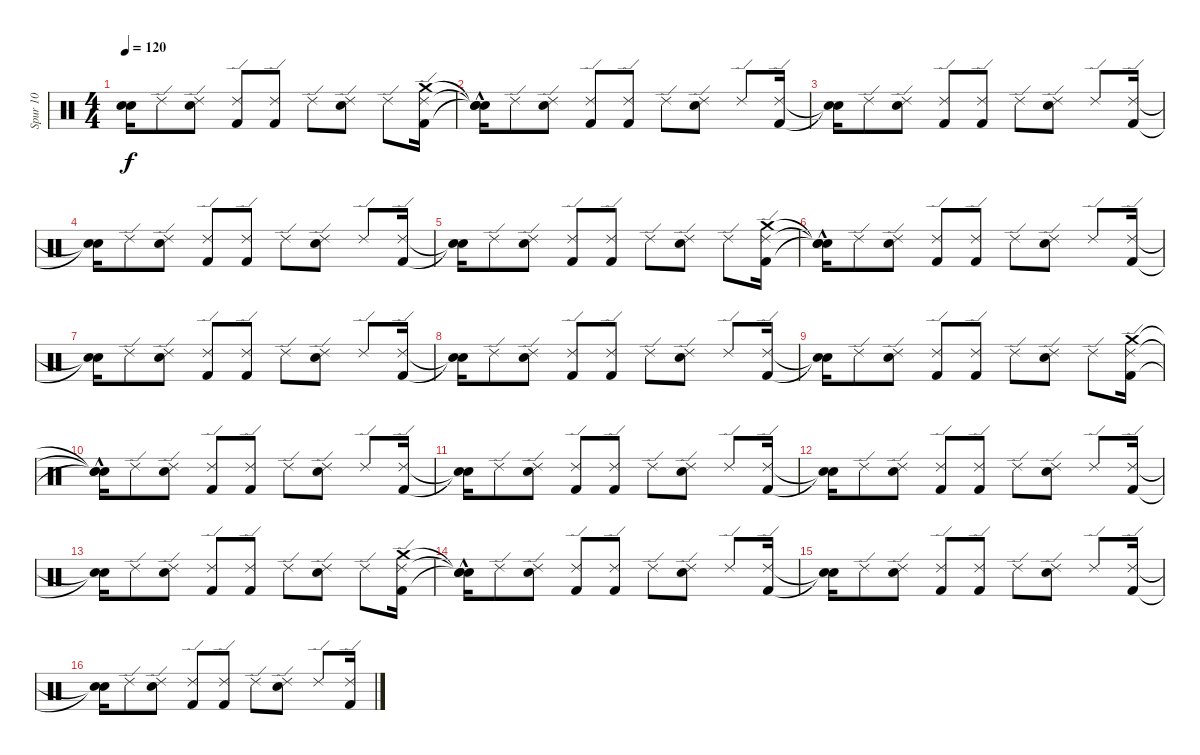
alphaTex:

\track ("Spur 10" "Spur 10") {instrument percussion}
\staff {score}
\articulation defaults
\ts (4 4)
\tempo 120
\clef neutral
\ks c
("Snare (hit)"{t} "Snare (hit)"{t}).16{dy f} "Ride (edge) 2".8 ("Electric Snare (hit)" "Ride (edge) 2").8 ("Kick (hit) 2" "Ride (edge) 2").8 ("Kick (hit) 2" "Ride (edge) 2").8 "Ride (edge) 2".8 ("Electric Snare (hit)" "Ride (edge) 2").8 "Ride (edge) 2".8 ("Kick (hit) 2" "Ride (edge) 2" "Crash medium (hit)").16 |
("Snare (hit)"{t} "Snare (hit)"{t} "Snare (hit)"{hac t}).16 "Ride (edge) 2".8 ("Electric Snare (hit)" "Ride (edge) 2").8 ("Kick (hit) 2" "Ride (edge) 2").8 ("Kick (hit) 2" "Ride (edge) 2").8 "Ride (edge) 2".8 ("Electric Snare (hit)" "Ride (edge) 2").8 "Ride (edge) 2".8 ("Kick (hit) 2" "Ride (edge) 2").16 |
("Snare (hit)"{t} "Snare (hit)"{t}).16 "Ride (edge) 2".8 ("Electric Snare (hit)" "Ride (edge) 2").8 ("Kick (hit) 2" "Ride (edge) 2").8 ("Kick (hit) 2" "Ride (edge) 2").8 "Ride (edge) 2".8 ("Electric Snare (hit)" "Ride (edge) 2").8 "Ride (edge) 2".8 ("Kick (hit) 2" "Ride (edge) 2").16 |
("Snare (hit)"{t} "Snare (hit)"{t}).16 "Ride (edge) 2".8 ("Electric Snare (hit)" "Ride (edge) 2").8 ("Kick (hit) 2" "Ride (edge) 2").8 ("Kick (hit) 2" "Ride (edge) 2").8 "Ride (edge) 2".8 ("Electric Snare (hit)" "Ride (edge) 2").8 "Ride (edge) 2".8 ("Kick (hit) 2" "Ride (edge) 2").16 |
("Snare (hit)"{t} "Snare (hit)"{t}).16 "Ride (edge) 2".8 ("Electric Snare (hit)" "Ride (edge) 2").8 ("Kick (hit) 2" "Ride (edge) 2").8 ("Kick (hit) 2" "Ride (edge) 2").8 "Ride (edge) 2".8 ("Electric Snare (hit)" "Ride (edge) 2").8 "Ride (edge) 2".8 ("Kick (hit) 2" "Ride (edge) 2" "Crash medium (hit)").16 |
("Snare (hit)"{t} "Snare (hit)"{t} "Snare (hit)"{hac t}).16 "Ride (edge) 2".8 ("Electric Snare (hit)" "Ride (edge) 2").8 ("Kick (hit) 2" "Ride (edge) 2").8 ("Kick (hit) 2" "Ride (edge) 2").8 "Ride (edge) 2".8 ("Electric Snare (hit)" "Ride (edge) 2").8 "Ride (edge) 2".8 ("Kick (hit) 2" "Ride (edge) 2").16 |
("Snare (hit)"{t} "Snare (hit)"{t}).16 "Ride (edge) 2".8 ("Electric Snare (hit)" "Ride (edge) 2").8 ("Kick (hit) 2" "Ride (edge) 2").8 ("Kick (hit) 2" "Ride (edge) 2").8 "Ride (edge) 2".8 ("Electric Snare (hit)" "Ride (edge) 2").8 "Ride (edge) 2".8 ("Kick (hit) 2" "Ride (edge) 2").16 |
("Snare (hit)"{t} "Snare (hit)"{t}).16 "Ride (edge) 2".8 ("Electric Snare (hit)" "Ride (edge) 2").8 ("Kick (hit) 2" "Ride (edge) 2").8 ("Kick (hit) 2" "Ride (edge) 2").8 "Ride (edge) 2".8 ("Electric Snare (hit)" "Ride (edge) 2").8 "Ride (edge) 2".8 ("Kick (hit) 2" "Ride (edge) 2").16 |
("Snare (hit)"{t} "Snare (hit)"{t}).16 "Ride (edge) 2".8 ("Electric Snare (hit)" "Ride (edge) 2").8 ("Kick (hit) 2" "Ride (edge) 2").8 ("Kick (hit) 2" "Ride (edge) 2").8 "Ride (edge) 2".8 ("Electric Snare (hit)" "Ride (edge) 2").8 "Ride (edge) 2".8 ("Kick (hit) 2" "Ride (edge) 2" "Crash medium (hit)").16 |
("Snare (hit)"{t} "Snare (hit)"{t} "Snare (hit)"{hac t}).16 "Ride (edge) 2".8 ("Electric Snare (hit)" "Ride (edge) 2").8 ("Kick (hit) 2" "Ride (edge) 2").8 ("Kick (hit) 2" "Ride (edge) 2").8 "Ride (edge) 2".8 ("Electric Snare (hit)" "Ride (edge) 2").8 "Ride (edge) 2".8 ("Kick (hit) 2" "Ride (edge) 2").16 |
("Snare (hit)"{t} "Snare (hit)"{t}).16 "Ride (edge) 2".8 ("Electric Snare (hit)" "Ride (edge) 2").8 ("Kick (hit) 2" "Ride (edge) 2").8 ("Kick (hit) 2" "Ride (edge) 2").8 "Ride (edge) 2".8 ("Electric Snare (hit)" "Ride (edge) 2").8 "Ride (edge) 2".8 ("Kick (hit) 2" "Ride (edge) 2").16 |
("Snare (hit)"{t} "Snare (hit)"{t}).16 "Ride (edge) 2".8 ("Electric Snare (hit)" "Ride (edge) 2").8 ("Kick (hit) 2" "Ride (edge) 2").8 ("Kick (hit) 2" "Ride (edge) 2").8 "Ride (edge) 2".8 ("Electric Snare (hit)" "Ride (edge) 2").8 "Ride (edge) 2".8 ("Kick (hit) 2" "Ride (edge) 2").16 |
("Snare (hit)"{t} "Snare (hit)"{t}).16 "Ride (edge) 2".8 ("Electric Snare (hit)" "Ride (edge) 2").8 ("Kick (hit) 2" "Ride (edge) 2").8 ("Kick (hit) 2" "Ride (edge) 2").8 "Ride (edge) 2".8 ("Electric Snare (hit)" "Ride (edge) 2").8 "Ride (edge) 2".8 ("Kick (hit) 2" "Ride (edge) 2" "Crash medium (hit)").16 |
("Snare (hit)"{t} "Snare (hit)"{t} "Snare (hit)"{hac t}).16 "Ride (edge) 2".8 ("Electric Snare (hit)" "Ride (edge) 2").8 ("Kick (hit) 2" "Ride (edge) 2").8 ("Kick (hit) 2" "Ride (edge) 2").8 "Ride (edge) 2".8 ("Electric Snare (hit)" "Ride (edge) 2").8 "Ride (edge) 2".8 ("Kick (hit) 2" "Ride (edge) 2").16 |
("Snare (hit)"{t} "Snare (hit)"{t}).16 "Ride (edge) 2".8 ("Electric Snare (hit)" "Ride (edge) 2").8 ("Kick (hit) 2" "Ride (edge) 2").8 ("Kick (hit) 2" "Ride (edge) 2").8 "Ride (edge) 2".8 ("Electric Snare (hit)" "Ride (edge) 2").8 "Ride (edge) 2".8 ("Kick (hit) 2" "Ride (edge) 2").16 |
("Snare (hit)"{t} "Snare (hit)"{t}).16 "Ride (edge) 2".8 ("Electric Snare (hit)" "Ride (edge) 2").8 ("Kick (hit) 2" "Ride (edge) 2").8 ("Kick (hit) 2" "Ride (edge) 2").8 "Ride (edge) 2".8 ("Electric Snare (hit)" "Ride (edge) 2").8 "Ride (edge) 2".8 ("Kick (hit) 2" "Ride (edge) 2").16
